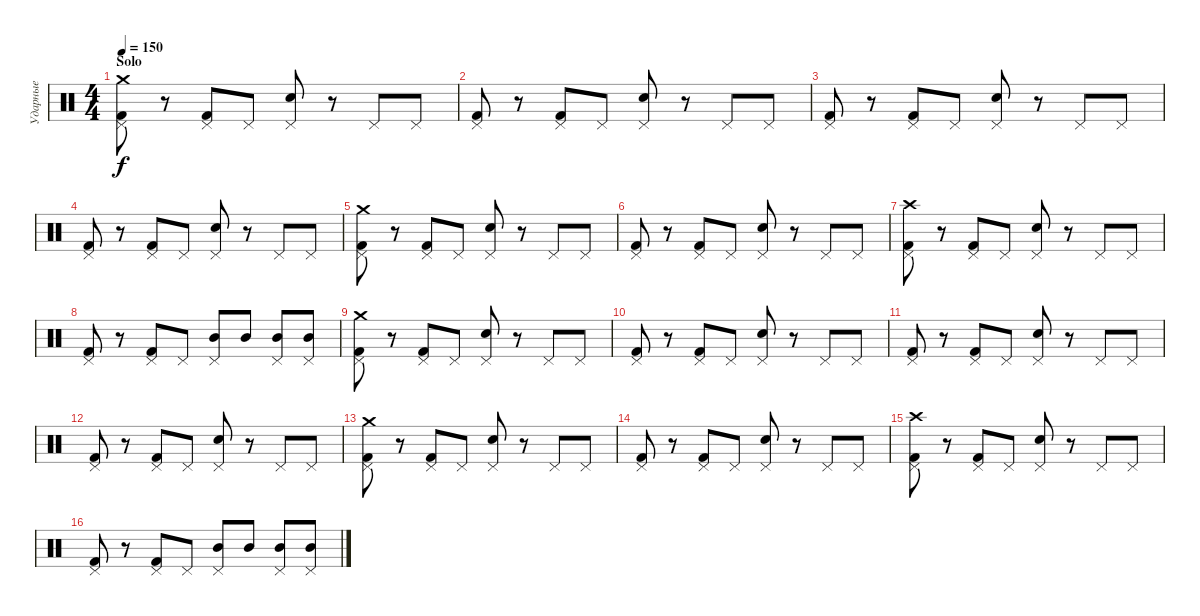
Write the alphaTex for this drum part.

\track ("Ударные" "Ударные") {instrument percussion}
\staff {score}
\articulation defaults
\ts (4 4)
\section ("" "Solo")
\tempo 150
\clef neutral
\ks c
("Crash medium (hit)" "Kick (hit) 2" "Pedal Hi-Hat (hit)").8{dy f} r.8 ("Kick (hit) 2" "Pedal Hi-Hat (hit)").8 "Pedal Hi-Hat (hit)".8 ("Pedal Hi-Hat (hit)" "Electric Snare (hit)").8 r.8 "Pedal Hi-Hat (hit)".8 "Pedal Hi-Hat (hit)".8 |
("Kick (hit) 2" "Pedal Hi-Hat (hit)").8 r.8 ("Kick (hit) 2" "Pedal Hi-Hat (hit)").8 "Pedal Hi-Hat (hit)".8 ("Pedal Hi-Hat (hit)" "Electric Snare (hit)").8 r.8 "Pedal Hi-Hat (hit)".8 "Pedal Hi-Hat (hit)".8 |
("Kick (hit) 2" "Pedal Hi-Hat (hit)").8 r.8 ("Kick (hit) 2" "Pedal Hi-Hat (hit)").8 "Pedal Hi-Hat (hit)".8 ("Pedal Hi-Hat (hit)" "Electric Snare (hit)").8 r.8 "Pedal Hi-Hat (hit)".8 "Pedal Hi-Hat (hit)".8 |
("Kick (hit) 2" "Pedal Hi-Hat (hit)").8 r.8 ("Kick (hit) 2" "Pedal Hi-Hat (hit)").8 "Pedal Hi-Hat (hit)".8 ("Pedal Hi-Hat (hit)" "Electric Snare (hit)").8 r.8 "Pedal Hi-Hat (hit)".8 "Pedal Hi-Hat (hit)".8 |
("Crash medium (hit)" "Kick (hit) 2" "Pedal Hi-Hat (hit)").8 r.8 ("Kick (hit) 2" "Pedal Hi-Hat (hit)").8 "Pedal Hi-Hat (hit)".8 ("Pedal Hi-Hat (hit)" "Electric Snare (hit)").8 r.8 "Pedal Hi-Hat (hit)".8 "Pedal Hi-Hat (hit)".8 |
("Kick (hit) 2" "Pedal Hi-Hat (hit)").8 r.8 ("Kick (hit) 2" "Pedal Hi-Hat (hit)").8 "Pedal Hi-Hat (hit)".8 ("Pedal Hi-Hat (hit)" "Electric Snare (hit)").8 r.8 "Pedal Hi-Hat (hit)".8 "Pedal Hi-Hat (hit)".8 |
("Crash high (hit)" "Kick (hit) 2" "Pedal Hi-Hat (hit)").8 r.8 ("Kick (hit) 2" "Pedal Hi-Hat (hit)").8 "Pedal Hi-Hat (hit)".8 ("Pedal Hi-Hat (hit)" "Electric Snare (hit)").8 r.8 "Pedal Hi-Hat (hit)".8 "Pedal Hi-Hat (hit)".8 |
("Kick (hit) 2" "Pedal Hi-Hat (hit)").8 r.8 ("Kick (hit) 2" "Pedal Hi-Hat (hit)").8 "Pedal Hi-Hat (hit)".8 ("Mid Tom (hit)" "Pedal Hi-Hat (hit)").8 "Mid Tom (hit)".8 ("Mid Tom (hit)" "Pedal Hi-Hat (hit)").8 ("Mid Tom (hit)" "Pedal Hi-Hat (hit)").8 |
("Crash medium (hit)" "Kick (hit) 2" "Pedal Hi-Hat (hit)").8 r.8 ("Kick (hit) 2" "Pedal Hi-Hat (hit)").8 "Pedal Hi-Hat (hit)".8 ("Pedal Hi-Hat (hit)" "Electric Snare (hit)").8 r.8 "Pedal Hi-Hat (hit)".8 "Pedal Hi-Hat (hit)".8 |
("Kick (hit) 2" "Pedal Hi-Hat (hit)").8 r.8 ("Kick (hit) 2" "Pedal Hi-Hat (hit)").8 "Pedal Hi-Hat (hit)".8 ("Pedal Hi-Hat (hit)" "Electric Snare (hit)").8 r.8 "Pedal Hi-Hat (hit)".8 "Pedal Hi-Hat (hit)".8 |
("Kick (hit) 2" "Pedal Hi-Hat (hit)").8 r.8 ("Kick (hit) 2" "Pedal Hi-Hat (hit)").8 "Pedal Hi-Hat (hit)".8 ("Pedal Hi-Hat (hit)" "Electric Snare (hit)").8 r.8 "Pedal Hi-Hat (hit)".8 "Pedal Hi-Hat (hit)".8 |
("Kick (hit) 2" "Pedal Hi-Hat (hit)").8 r.8 ("Kick (hit) 2" "Pedal Hi-Hat (hit)").8 "Pedal Hi-Hat (hit)".8 ("Pedal Hi-Hat (hit)" "Electric Snare (hit)").8 r.8 "Pedal Hi-Hat (hit)".8 "Pedal Hi-Hat (hit)".8 |
("Crash medium (hit)" "Kick (hit) 2" "Pedal Hi-Hat (hit)").8 r.8 ("Kick (hit) 2" "Pedal Hi-Hat (hit)").8 "Pedal Hi-Hat (hit)".8 ("Pedal Hi-Hat (hit)" "Electric Snare (hit)").8 r.8 "Pedal Hi-Hat (hit)".8 "Pedal Hi-Hat (hit)".8 |
("Kick (hit) 2" "Pedal Hi-Hat (hit)").8 r.8 ("Kick (hit) 2" "Pedal Hi-Hat (hit)").8 "Pedal Hi-Hat (hit)".8 ("Pedal Hi-Hat (hit)" "Electric Snare (hit)").8 r.8 "Pedal Hi-Hat (hit)".8 "Pedal Hi-Hat (hit)".8 |
("Crash high (hit)" "Kick (hit) 2" "Pedal Hi-Hat (hit)").8 r.8 ("Kick (hit) 2" "Pedal Hi-Hat (hit)").8 "Pedal Hi-Hat (hit)".8 ("Pedal Hi-Hat (hit)" "Electric Snare (hit)").8 r.8 "Pedal Hi-Hat (hit)".8 "Pedal Hi-Hat (hit)".8 |
("Kick (hit) 2" "Pedal Hi-Hat (hit)").8 r.8 ("Kick (hit) 2" "Pedal Hi-Hat (hit)").8 "Pedal Hi-Hat (hit)".8 ("Mid Tom (hit)" "Pedal Hi-Hat (hit)").8 "Mid Tom (hit)".8 ("Mid Tom (hit)" "Pedal Hi-Hat (hit)").8 ("Mid Tom (hit)" "Pedal Hi-Hat (hit)").8
